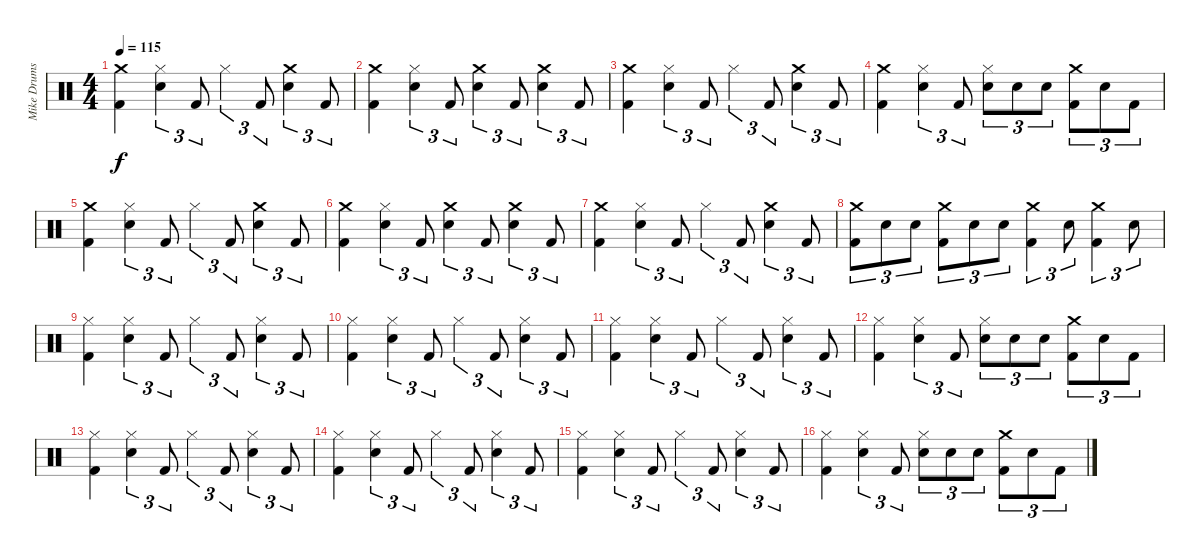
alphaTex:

\track ("Mike Drums" "Mike Drums") {instrument percussion}
\staff {score}
\articulation defaults
\ts (4 4)
\tempo 115
\clef neutral
\ks c
("Crash medium (hit)" "Kick (hit) 2").4{dy f} ("Hi-Hat (closed)" "Electric Snare (hit)").4{tu (3 2)} "Kick (hit) 2".8{tu (3 2)} "Hi-Hat (closed)".4{tu (3 2)} "Kick (hit) 2".8{tu (3 2)} ("Crash medium (hit)" "Electric Snare (hit)").4{tu (3 2)} "Kick (hit) 2".8{tu (3 2)} |
("Crash medium (hit)" "Kick (hit) 2").4 ("Hi-Hat (closed)" "Electric Snare (hit)").4{tu (3 2)} "Kick (hit) 2".8{tu (3 2)} ("Crash medium (hit)" "Electric Snare (hit)").4{tu (3 2)} "Kick (hit) 2".8{tu (3 2)} ("Crash medium (hit)" "Electric Snare (hit)").4{tu (3 2)} "Kick (hit) 2".8{tu (3 2)} |
("Crash medium (hit)" "Kick (hit) 2").4 ("Hi-Hat (closed)" "Electric Snare (hit)").4{tu (3 2)} "Kick (hit) 2".8{tu (3 2)} "Hi-Hat (closed)".4{tu (3 2)} "Kick (hit) 2".8{tu (3 2)} ("Crash medium (hit)" "Electric Snare (hit)").4{tu (3 2)} "Kick (hit) 2".8{tu (3 2)} |
("Crash medium (hit)" "Kick (hit) 2").4 ("Hi-Hat (closed)" "Electric Snare (hit)").4{tu (3 2)} "Kick (hit) 2".8{tu (3 2)} ("Hi-Hat (closed)" "Electric Snare (hit)").8{tu (3 2)} "Electric Snare (hit)".8{tu (3 2)} "Electric Snare (hit)".8{tu (3 2)} ("Crash medium (hit)" "Kick (hit) 2").8{tu (3 2)} "Electric Snare (hit)".8{tu (3 2)} "Kick (hit) 2".8{tu (3 2)} |
("Crash medium (hit)" "Kick (hit) 2").4 ("Hi-Hat (closed)" "Electric Snare (hit)").4{tu (3 2)} "Kick (hit) 2".8{tu (3 2)} "Hi-Hat (closed)".4{tu (3 2)} "Kick (hit) 2".8{tu (3 2)} ("Crash medium (hit)" "Electric Snare (hit)").4{tu (3 2)} "Kick (hit) 2".8{tu (3 2)} |
("Crash medium (hit)" "Kick (hit) 2").4 ("Hi-Hat (closed)" "Electric Snare (hit)").4{tu (3 2)} "Kick (hit) 2".8{tu (3 2)} ("Crash medium (hit)" "Electric Snare (hit)").4{tu (3 2)} "Kick (hit) 2".8{tu (3 2)} ("Crash medium (hit)" "Electric Snare (hit)").4{tu (3 2)} "Kick (hit) 2".8{tu (3 2)} |
("Crash medium (hit)" "Kick (hit) 2").4 ("Hi-Hat (closed)" "Electric Snare (hit)").4{tu (3 2)} "Kick (hit) 2".8{tu (3 2)} "Hi-Hat (closed)".4{tu (3 2)} "Kick (hit) 2".8{tu (3 2)} ("Crash medium (hit)" "Electric Snare (hit)").4{tu (3 2)} "Kick (hit) 2".8{tu (3 2)} |
("Crash medium (hit)" "Kick (hit) 2").8{tu (3 2)} "Electric Snare (hit)".8{tu (3 2)} "Electric Snare (hit)".8{tu (3 2)} ("Crash medium (hit)" "Kick (hit) 2").8{tu (3 2)} "Electric Snare (hit)".8{tu (3 2)} "Electric Snare (hit)".8{tu (3 2)} ("Crash medium (hit)" "Kick (hit) 2").4{tu (3 2)} "Electric Snare (hit)".8{tu (3 2)} ("Crash medium (hit)" "Kick (hit) 2").4{tu (3 2)} "Electric Snare (hit)".8{tu (3 2)} |
("Hi-Hat (closed)" "Kick (hit) 2").4 ("Hi-Hat (closed)" "Electric Snare (hit)").4{tu (3 2)} "Kick (hit) 2".8{tu (3 2)} "Hi-Hat (closed)".4{tu (3 2)} "Kick (hit) 2".8{tu (3 2)} ("Hi-Hat (closed)" "Electric Snare (hit)").4{tu (3 2)} "Kick (hit) 2".8{tu (3 2)} |
("Hi-Hat (closed)" "Kick (hit) 2").4 ("Hi-Hat (closed)" "Electric Snare (hit)").4{tu (3 2)} "Kick (hit) 2".8{tu (3 2)} "Hi-Hat (closed)".4{tu (3 2)} "Kick (hit) 2".8{tu (3 2)} ("Hi-Hat (closed)" "Electric Snare (hit)").4{tu (3 2)} "Kick (hit) 2".8{tu (3 2)} |
("Hi-Hat (closed)" "Kick (hit) 2").4 ("Hi-Hat (closed)" "Electric Snare (hit)").4{tu (3 2)} "Kick (hit) 2".8{tu (3 2)} "Hi-Hat (closed)".4{tu (3 2)} "Kick (hit) 2".8{tu (3 2)} ("Hi-Hat (closed)" "Electric Snare (hit)").4{tu (3 2)} "Kick (hit) 2".8{tu (3 2)} |
("Hi-Hat (closed)" "Kick (hit) 2").4 ("Hi-Hat (closed)" "Electric Snare (hit)").4{tu (3 2)} "Kick (hit) 2".8{tu (3 2)} ("Hi-Hat (closed)" "Electric Snare (hit)").8{tu (3 2)} "Electric Snare (hit)".8{tu (3 2)} "Electric Snare (hit)".8{tu (3 2)} ("Crash medium (hit)" "Kick (hit) 2").8{tu (3 2)} "Electric Snare (hit)".8{tu (3 2)} "Kick (hit) 2".8{tu (3 2)} |
("Hi-Hat (closed)" "Kick (hit) 2").4 ("Hi-Hat (closed)" "Electric Snare (hit)").4{tu (3 2)} "Kick (hit) 2".8{tu (3 2)} "Hi-Hat (closed)".4{tu (3 2)} "Kick (hit) 2".8{tu (3 2)} ("Hi-Hat (closed)" "Electric Snare (hit)").4{tu (3 2)} "Kick (hit) 2".8{tu (3 2)} |
("Hi-Hat (closed)" "Kick (hit) 2").4 ("Hi-Hat (closed)" "Electric Snare (hit)").4{tu (3 2)} "Kick (hit) 2".8{tu (3 2)} "Hi-Hat (closed)".4{tu (3 2)} "Kick (hit) 2".8{tu (3 2)} ("Hi-Hat (closed)" "Electric Snare (hit)").4{tu (3 2)} "Kick (hit) 2".8{tu (3 2)} |
("Hi-Hat (closed)" "Kick (hit) 2").4 ("Hi-Hat (closed)" "Electric Snare (hit)").4{tu (3 2)} "Kick (hit) 2".8{tu (3 2)} "Hi-Hat (closed)".4{tu (3 2)} "Kick (hit) 2".8{tu (3 2)} ("Hi-Hat (closed)" "Electric Snare (hit)").4{tu (3 2)} "Kick (hit) 2".8{tu (3 2)} |
("Hi-Hat (closed)" "Kick (hit) 2").4 ("Hi-Hat (closed)" "Electric Snare (hit)").4{tu (3 2)} "Kick (hit) 2".8{tu (3 2)} ("Hi-Hat (closed)" "Electric Snare (hit)").8{tu (3 2)} "Electric Snare (hit)".8{tu (3 2)} "Electric Snare (hit)".8{tu (3 2)} ("Crash medium (hit)" "Kick (hit) 2").8{tu (3 2)} "Electric Snare (hit)".8{tu (3 2)} "Kick (hit) 2".8{tu (3 2)}
